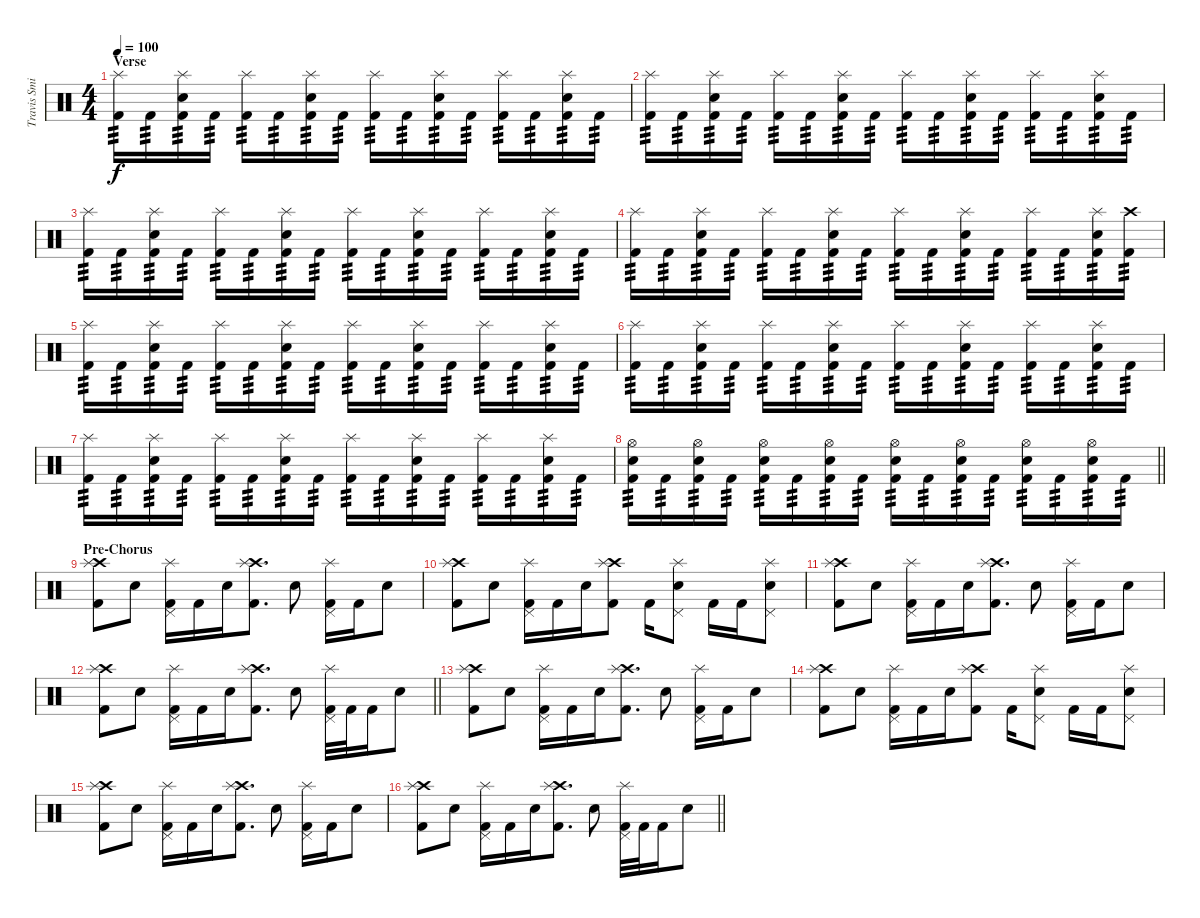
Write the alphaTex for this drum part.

\track ("Travis Smith" "Travis Smi") {instrument percussion}
\staff {score}
\articulation defaults
\ts (4 4)
\section ("" "Verse")
\tempo 100
\clef neutral
\ks c
("Splash (hit)" "Kick (hit) 2").16{tp 3 dy f} "Kick (hit) 2".16{tp 3} ("Splash (hit)" "Snare (hit) 2" "Kick (hit) 2").16{tp 3} "Kick (hit) 2".16{tp 3} ("Splash (hit)" "Kick (hit) 2").16{tp 3} "Kick (hit) 2".16{tp 3} ("Splash (hit)" "Snare (hit) 2" "Kick (hit) 2").16{tp 3} "Kick (hit) 2".16{tp 3} ("Splash (hit)" "Kick (hit) 2").16{tp 3} "Kick (hit) 2".16{tp 3} ("Splash (hit)" "Snare (hit) 2" "Kick (hit) 2").16{tp 3} "Kick (hit) 2".16{tp 3} ("Splash (hit)" "Kick (hit) 2").16{tp 3} "Kick (hit) 2".16{tp 3} ("Splash (hit)" "Snare (hit) 2" "Kick (hit) 2").16{tp 3} "Kick (hit) 2".16{tp 3} |
("Splash (hit)" "Kick (hit) 2").16{tp 3} "Kick (hit) 2".16{tp 3} ("Splash (hit)" "Snare (hit) 2" "Kick (hit) 2").16{tp 3} "Kick (hit) 2".16{tp 3} ("Splash (hit)" "Kick (hit) 2").16{tp 3} "Kick (hit) 2".16{tp 3} ("Splash (hit)" "Snare (hit) 2" "Kick (hit) 2").16{tp 3} "Kick (hit) 2".16{tp 3} ("Splash (hit)" "Kick (hit) 2").16{tp 3} "Kick (hit) 2".16{tp 3} ("Splash (hit)" "Snare (hit) 2" "Kick (hit) 2").16{tp 3} "Kick (hit) 2".16{tp 3} ("Splash (hit)" "Kick (hit) 2").16{tp 3} "Kick (hit) 2".16{tp 3} ("Splash (hit)" "Snare (hit) 2" "Kick (hit) 2").16{tp 3} "Kick (hit) 2".16{tp 3} |
("Splash (hit)" "Kick (hit) 2").16{tp 3} "Kick (hit) 2".16{tp 3} ("Splash (hit)" "Snare (hit) 2" "Kick (hit) 2").16{tp 3} "Kick (hit) 2".16{tp 3} ("Splash (hit)" "Kick (hit) 2").16{tp 3} "Kick (hit) 2".16{tp 3} ("Splash (hit)" "Snare (hit) 2" "Kick (hit) 2").16{tp 3} "Kick (hit) 2".16{tp 3} ("Splash (hit)" "Kick (hit) 2").16{tp 3} "Kick (hit) 2".16{tp 3} ("Splash (hit)" "Snare (hit) 2" "Kick (hit) 2").16{tp 3} "Kick (hit) 2".16{tp 3} ("Splash (hit)" "Kick (hit) 2").16{tp 3} "Kick (hit) 2".16{tp 3} ("Splash (hit)" "Snare (hit) 2" "Kick (hit) 2").16{tp 3} "Kick (hit) 2".16{tp 3} |
("Splash (hit)" "Kick (hit) 2").16{tp 3} "Kick (hit) 2".16{tp 3} ("Splash (hit)" "Snare (hit) 2" "Kick (hit) 2").16{tp 3} "Kick (hit) 2".16{tp 3} ("Splash (hit)" "Kick (hit) 2").16{tp 3} "Kick (hit) 2".16{tp 3} ("Splash (hit)" "Snare (hit) 2" "Kick (hit) 2").16{tp 3} "Kick (hit) 2".16{tp 3} ("Splash (hit)" "Kick (hit) 2").16{tp 3} "Kick (hit) 2".16{tp 3} ("Splash (hit)" "Snare (hit) 2" "Kick (hit) 2").16{tp 3} "Kick (hit) 2".16{tp 3} ("Splash (hit)" "Kick (hit) 2").16{tp 3} "Kick (hit) 2".16{tp 3} ("Splash (hit)" "Snare (hit) 2" "Kick (hit) 2").16{tp 3} ("Crash high (hit)" "Kick (hit) 2").16{tp 3} |
("Splash (hit)" "Kick (hit) 2").16{tp 3} "Kick (hit) 2".16{tp 3} ("Splash (hit)" "Snare (hit) 2" "Kick (hit) 2").16{tp 3} "Kick (hit) 2".16{tp 3} ("Splash (hit)" "Kick (hit) 2").16{tp 3} "Kick (hit) 2".16{tp 3} ("Splash (hit)" "Snare (hit) 2" "Kick (hit) 2").16{tp 3} "Kick (hit) 2".16{tp 3} ("Splash (hit)" "Kick (hit) 2").16{tp 3} "Kick (hit) 2".16{tp 3} ("Splash (hit)" "Snare (hit) 2" "Kick (hit) 2").16{tp 3} "Kick (hit) 2".16{tp 3} ("Splash (hit)" "Kick (hit) 2").16{tp 3} "Kick (hit) 2".16{tp 3} ("Splash (hit)" "Snare (hit) 2" "Kick (hit) 2").16{tp 3} "Kick (hit) 2".16{tp 3} |
("Splash (hit)" "Kick (hit) 2").16{tp 3} "Kick (hit) 2".16{tp 3} ("Splash (hit)" "Snare (hit) 2" "Kick (hit) 2").16{tp 3} "Kick (hit) 2".16{tp 3} ("Splash (hit)" "Kick (hit) 2").16{tp 3} "Kick (hit) 2".16{tp 3} ("Splash (hit)" "Snare (hit) 2" "Kick (hit) 2").16{tp 3} "Kick (hit) 2".16{tp 3} ("Splash (hit)" "Kick (hit) 2").16{tp 3} "Kick (hit) 2".16{tp 3} ("Splash (hit)" "Snare (hit) 2" "Kick (hit) 2").16{tp 3} "Kick (hit) 2".16{tp 3} ("Splash (hit)" "Kick (hit) 2").16{tp 3} "Kick (hit) 2".16{tp 3} ("Splash (hit)" "Snare (hit) 2" "Kick (hit) 2").16{tp 3} "Kick (hit) 2".16{tp 3} |
("Splash (hit)" "Kick (hit) 2").16{tp 3} "Kick (hit) 2".16{tp 3} ("Splash (hit)" "Snare (hit) 2" "Kick (hit) 2").16{tp 3} "Kick (hit) 2".16{tp 3} ("Splash (hit)" "Kick (hit) 2").16{tp 3} "Kick (hit) 2".16{tp 3} ("Splash (hit)" "Snare (hit) 2" "Kick (hit) 2").16{tp 3} "Kick (hit) 2".16{tp 3} ("Splash (hit)" "Kick (hit) 2").16{tp 3} "Kick (hit) 2".16{tp 3} ("Splash (hit)" "Snare (hit) 2" "Kick (hit) 2").16{tp 3} "Kick (hit) 2".16{tp 3} ("Splash (hit)" "Kick (hit) 2").16{tp 3} "Kick (hit) 2".16{tp 3} ("Splash (hit)" "Snare (hit) 2" "Kick (hit) 2").16{tp 3} "Kick (hit) 2".16{tp 3} |
\barLineRight lightlight
("Hi-Hat (open)" "Snare (hit) 2" "Kick (hit) 2").16{tp 3} "Kick (hit) 2".16{tp 3} ("Hi-Hat (open)" "Snare (hit) 2" "Kick (hit) 2").16{tp 3} "Kick (hit) 2".16{tp 3} ("Hi-Hat (open)" "Snare (hit) 2" "Kick (hit) 2").16{tp 3} "Kick (hit) 2".16{tp 3} ("Hi-Hat (open)" "Snare (hit) 2" "Kick (hit) 2").16{tp 3} "Kick (hit) 2".16{tp 3} ("Hi-Hat (open)" "Snare (hit) 2" "Kick (hit) 2").16{tp 3} "Kick (hit) 2".16{tp 3} ("Hi-Hat (open)" "Snare (hit) 2" "Kick (hit) 2").16{tp 3} "Kick (hit) 2".16{tp 3} ("Hi-Hat (open)" "Snare (hit) 2" "Kick (hit) 2").16{tp 3} "Kick (hit) 2".16{tp 3} ("Hi-Hat (open)" "Snare (hit) 2" "Kick (hit) 2").16{tp 3} "Kick (hit) 2".16{tp 3} |
\section ("" "Pre-Chorus")
("Crash high (hit)" "Splash (hit)" "Kick (hit) 2").8 "Snare (hit) 2".8 ("Pedal Hi-Hat (hit)" "Splash (hit)" "Kick (hit) 2").16 "Kick (hit) 2".16 "Snare (hit) 2".16 ("Crash high (hit)" "Splash (hit)" "Kick (hit) 2").8{d} "Snare (hit) 2".8 ("Pedal Hi-Hat (hit)" "Splash (hit)" "Kick (hit) 2").16 "Kick (hit) 2".16 "Snare (hit) 2".8 |
("Crash high (hit)" "Splash (hit)" "Kick (hit) 2").8 "Snare (hit) 2".8 ("Pedal Hi-Hat (hit)" "Splash (hit)" "Kick (hit) 2").16 "Kick (hit) 2".16 "Snare (hit) 2".16 ("Crash high (hit)" "Splash (hit)" "Kick (hit) 2").8 "Kick (hit) 2".16 ("Pedal Hi-Hat (hit)" "Splash (hit)" "Snare (hit) 2").8 "Kick (hit) 2".16 "Kick (hit) 2".16 ("Pedal Hi-Hat (hit)" "Splash (hit)" "Snare (hit) 2").8 |
("Crash high (hit)" "Splash (hit)" "Kick (hit) 2").8 "Snare (hit) 2".8 ("Pedal Hi-Hat (hit)" "Splash (hit)" "Kick (hit) 2").16 "Kick (hit) 2".16 "Snare (hit) 2".16 ("Crash high (hit)" "Splash (hit)" "Kick (hit) 2").8{d} "Snare (hit) 2".8 ("Pedal Hi-Hat (hit)" "Splash (hit)" "Kick (hit) 2").16 "Kick (hit) 2".16 "Snare (hit) 2".8 |
\barLineRight lightlight
("Crash high (hit)" "Splash (hit)" "Kick (hit) 2").8 "Snare (hit) 2".8 ("Pedal Hi-Hat (hit)" "Splash (hit)" "Kick (hit) 2").16 "Kick (hit) 2".16 "Snare (hit) 2".16 ("Crash high (hit)" "Splash (hit)" "Kick (hit) 2").8{d} "Snare (hit) 2".8 ("Pedal Hi-Hat (hit)" "Splash (hit)" "Kick (hit) 2").32 "Kick (hit) 2".32 "Kick (hit) 2".16 "Snare (hit) 2".8 |
("Crash high (hit)" "Splash (hit)" "Kick (hit) 2").8 "Snare (hit) 2".8 ("Pedal Hi-Hat (hit)" "Splash (hit)" "Kick (hit) 2").16 "Kick (hit) 2".16 "Snare (hit) 2".16 ("Crash high (hit)" "Splash (hit)" "Kick (hit) 2").8{d} "Snare (hit) 2".8 ("Pedal Hi-Hat (hit)" "Splash (hit)" "Kick (hit) 2").16 "Kick (hit) 2".16 "Snare (hit) 2".8 |
("Crash high (hit)" "Splash (hit)" "Kick (hit) 2").8 "Snare (hit) 2".8 ("Pedal Hi-Hat (hit)" "Splash (hit)" "Kick (hit) 2").16 "Kick (hit) 2".16 "Snare (hit) 2".16 ("Crash high (hit)" "Splash (hit)" "Kick (hit) 2").8 "Kick (hit) 2".16 ("Pedal Hi-Hat (hit)" "Splash (hit)" "Snare (hit) 2").8 "Kick (hit) 2".16 "Kick (hit) 2".16 ("Pedal Hi-Hat (hit)" "Splash (hit)" "Snare (hit) 2").8 |
("Crash high (hit)" "Splash (hit)" "Kick (hit) 2").8 "Snare (hit) 2".8 ("Pedal Hi-Hat (hit)" "Splash (hit)" "Kick (hit) 2").16 "Kick (hit) 2".16 "Snare (hit) 2".16 ("Crash high (hit)" "Splash (hit)" "Kick (hit) 2").8{d} "Snare (hit) 2".8 ("Pedal Hi-Hat (hit)" "Splash (hit)" "Kick (hit) 2").16 "Kick (hit) 2".16 "Snare (hit) 2".8 |
\barLineRight lightlight
("Crash high (hit)" "Splash (hit)" "Kick (hit) 2").8 "Snare (hit) 2".8 ("Pedal Hi-Hat (hit)" "Splash (hit)" "Kick (hit) 2").16 "Kick (hit) 2".16 "Snare (hit) 2".16 ("Crash high (hit)" "Splash (hit)" "Kick (hit) 2").8{d} "Snare (hit) 2".8 ("Pedal Hi-Hat (hit)" "Splash (hit)" "Kick (hit) 2").32 "Kick (hit) 2".32 "Kick (hit) 2".16 "Snare (hit) 2".8
